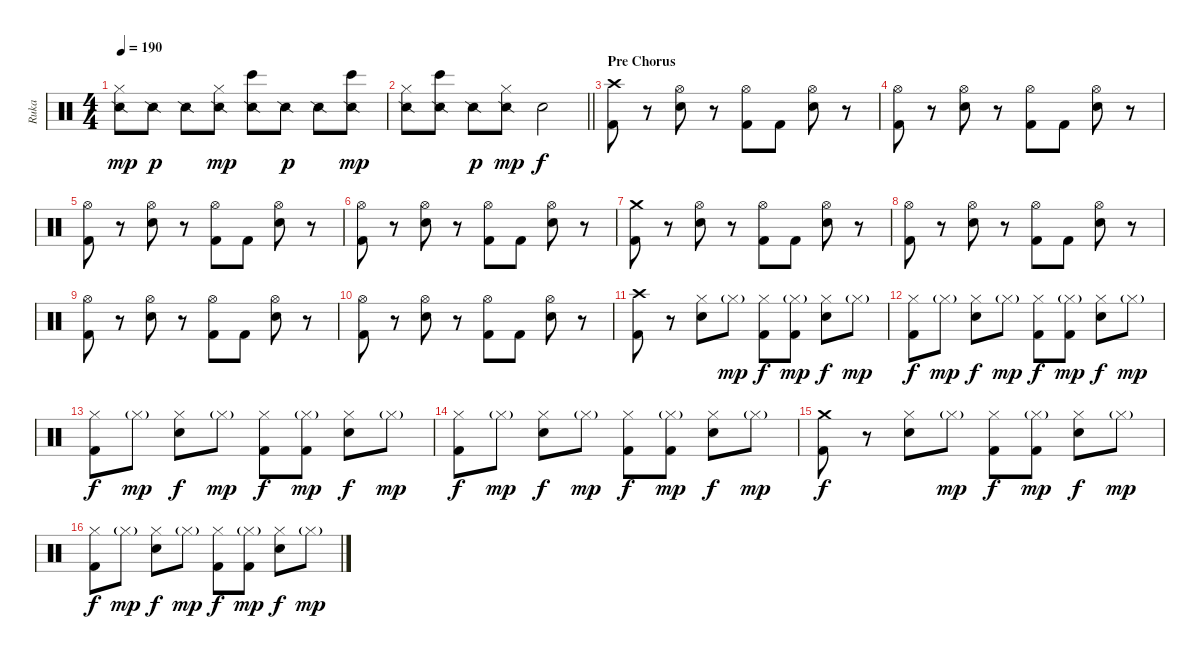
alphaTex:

\track ("Ruka " "Ruka ") {instrument percussion}
\staff {score}
\articulation defaults
\ts (4 4)
\tempo 190
\clef neutral
\ks c
("Snare (side stick) 2" "Hi-Hat (closed)").8{dy mp} "Snare (side stick) 2".8{dy p} "Snare (side stick) 2".8 ("Snare (side stick) 2" "Hi-Hat (closed)").8{dy mp} ("Snare (side stick) 2" "Bongo High (hit)").8 "Snare (side stick) 2".8{dy p} "Snare (side stick) 2".8 ("Snare (side stick) 2" "Bongo High (hit)").8{dy mp} |
\barLineRight lightlight
("Snare (side stick) 2" "Hi-Hat (closed)").8 ("Snare (side stick) 2" "Bongo High (hit)").8 "Snare (side stick) 2".8{dy p} ("Snare (side stick) 2" "Hi-Hat (closed)").8{dy mp} "Electric Snare (hit)".2{dy f} |
\section ("" "Pre Chorus")
("Crash high (hit)" "Kick (hit) 2").8 r.8 ("Hi-Hat (open)" "Electric Snare (hit)").8 r.8 ("Hi-Hat (open)" "Kick (hit) 2").8 "Kick (hit) 2".8 ("Hi-Hat (open)" "Electric Snare (hit)").8 r.8 |
("Hi-Hat (open)" "Kick (hit) 2").8 r.8 ("Hi-Hat (open)" "Electric Snare (hit)").8 r.8 ("Hi-Hat (open)" "Kick (hit) 2").8 "Kick (hit) 2".8 ("Hi-Hat (open)" "Electric Snare (hit)").8 r.8 |
("Hi-Hat (open)" "Kick (hit) 2").8 r.8 ("Hi-Hat (open)" "Electric Snare (hit)").8 r.8 ("Hi-Hat (open)" "Kick (hit) 2").8 "Kick (hit) 2".8 ("Hi-Hat (open)" "Electric Snare (hit)").8 r.8 |
("Hi-Hat (open)" "Kick (hit) 2").8 r.8 ("Hi-Hat (open)" "Electric Snare (hit)").8 r.8 ("Hi-Hat (open)" "Kick (hit) 2").8 "Kick (hit) 2".8 ("Hi-Hat (open)" "Electric Snare (hit)").8 r.8 |
("Crash medium (hit)" "Kick (hit) 2").8 r.8 ("Hi-Hat (open)" "Electric Snare (hit)").8 r.8 ("Hi-Hat (open)" "Kick (hit) 2").8 "Kick (hit) 2".8 ("Hi-Hat (open)" "Electric Snare (hit)").8 r.8 |
("Hi-Hat (open)" "Kick (hit) 2").8 r.8 ("Hi-Hat (open)" "Electric Snare (hit)").8 r.8 ("Hi-Hat (open)" "Kick (hit) 2").8 "Kick (hit) 2".8 ("Hi-Hat (open)" "Electric Snare (hit)").8 r.8 |
("Hi-Hat (open)" "Kick (hit) 2").8 r.8 ("Hi-Hat (open)" "Electric Snare (hit)").8 r.8 ("Hi-Hat (open)" "Kick (hit) 2").8 "Kick (hit) 2".8 ("Hi-Hat (open)" "Electric Snare (hit)").8 r.8 |
("Hi-Hat (open)" "Kick (hit) 2").8 r.8 ("Hi-Hat (open)" "Electric Snare (hit)").8 r.8 ("Hi-Hat (open)" "Kick (hit) 2").8 "Kick (hit) 2".8 ("Hi-Hat (open)" "Electric Snare (hit)").8 r.8 |
("Crash high (hit)" "Kick (hit) 2").8 r.8 ("Hi-Hat (closed)" "Electric Snare (hit)").8 "Hi-Hat (closed)"{g}.8{dy mp} ("Hi-Hat (closed)" "Kick (hit) 2").8{dy f} ("Hi-Hat (closed)"{g} "Kick (hit) 2").8{dy mp} ("Hi-Hat (closed)" "Electric Snare (hit)").8{dy f} "Hi-Hat (closed)"{g}.8{dy mp} |
("Hi-Hat (closed)" "Kick (hit) 2").8{dy f} "Hi-Hat (closed)"{g}.8{dy mp} ("Hi-Hat (closed)" "Electric Snare (hit)").8{dy f} "Hi-Hat (closed)"{g}.8{dy mp} ("Hi-Hat (closed)" "Kick (hit) 2").8{dy f} ("Hi-Hat (closed)"{g} "Kick (hit) 2").8{dy mp} ("Hi-Hat (closed)" "Electric Snare (hit)").8{dy f} "Hi-Hat (closed)"{g}.8{dy mp} |
("Hi-Hat (closed)" "Kick (hit) 2").8{dy f} "Hi-Hat (closed)"{g}.8{dy mp} ("Hi-Hat (closed)" "Electric Snare (hit)").8{dy f} "Hi-Hat (closed)"{g}.8{dy mp} ("Hi-Hat (closed)" "Kick (hit) 2").8{dy f} ("Hi-Hat (closed)"{g} "Kick (hit) 2").8{dy mp} ("Hi-Hat (closed)" "Electric Snare (hit)").8{dy f} "Hi-Hat (closed)"{g}.8{dy mp} |
("Hi-Hat (closed)" "Kick (hit) 2").8{dy f} "Hi-Hat (closed)"{g}.8{dy mp} ("Hi-Hat (closed)" "Electric Snare (hit)").8{dy f} "Hi-Hat (closed)"{g}.8{dy mp} ("Hi-Hat (closed)" "Kick (hit) 2").8{dy f} ("Hi-Hat (closed)"{g} "Kick (hit) 2").8{dy mp} ("Hi-Hat (closed)" "Electric Snare (hit)").8{dy f} "Hi-Hat (closed)"{g}.8{dy mp} |
("Crash medium (hit)" "Kick (hit) 2").8{dy f} r.8 ("Hi-Hat (closed)" "Electric Snare (hit)").8 "Hi-Hat (closed)"{g}.8{dy mp} ("Hi-Hat (closed)" "Kick (hit) 2").8{dy f} ("Hi-Hat (closed)"{g} "Kick (hit) 2").8{dy mp} ("Hi-Hat (closed)" "Electric Snare (hit)").8{dy f} "Hi-Hat (closed)"{g}.8{dy mp} |
("Hi-Hat (closed)" "Kick (hit) 2").8{dy f} "Hi-Hat (closed)"{g}.8{dy mp} ("Hi-Hat (closed)" "Electric Snare (hit)").8{dy f} "Hi-Hat (closed)"{g}.8{dy mp} ("Hi-Hat (closed)" "Kick (hit) 2").8{dy f} ("Hi-Hat (closed)"{g} "Kick (hit) 2").8{dy mp} ("Hi-Hat (closed)" "Electric Snare (hit)").8{dy f} "Hi-Hat (closed)"{g}.8{dy mp}
